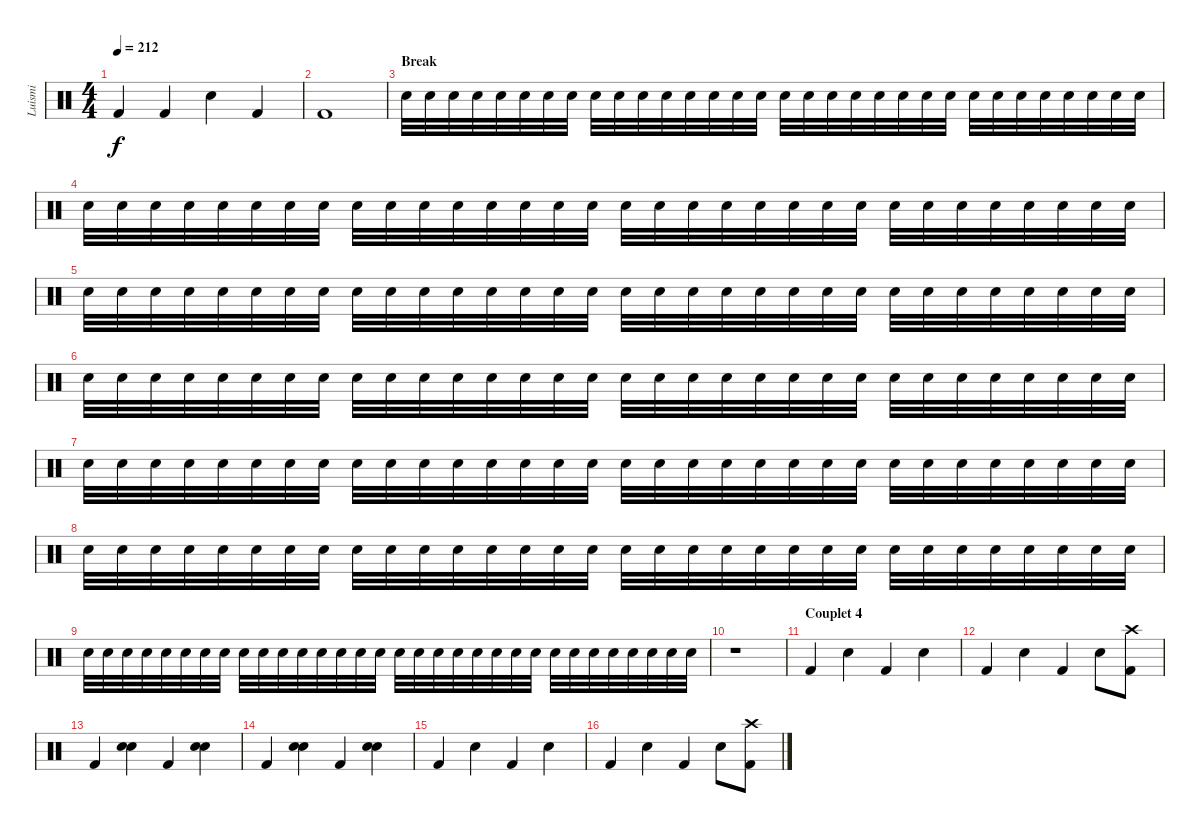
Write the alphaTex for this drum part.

\track ("Luismi" "Luismi") {instrument percussion}
\staff {score}
\articulation defaults
\ts (4 4)
\tempo 212
\clef neutral
\ks c "Kick (hit) 2".4{dy f} "Kick (hit) 2".4 "Snare (hit) 2".4 "Kick (hit) 2".4
|
"Kick (hit) 2".1 |
\section ("" "Break")
"Electric Snare (hit)".32{volume 1} "Snare (hit) 2".32 "Snare (hit) 2".32 "Snare (hit) 2".32 "Snare (hit) 2".32 "Snare (hit) 2".32 "Snare (hit) 2".32 "Snare (hit) 2".32 "Snare (hit) 2".32 "Snare (hit) 2".32 "Snare (hit) 2".32 "Snare (hit) 2".32 "Snare (hit) 2".32 "Snare (hit) 2".32 "Snare (hit) 2".32 "Snare (hit) 2".32 "Electric Snare (hit)".32{volume 2} "Snare (hit) 2".32 "Snare (hit) 2".32 "Snare (hit) 2".32 "Snare (hit) 2".32 "Snare (hit) 2".32 "Snare (hit) 2".32 "Snare (hit) 2".32 "Snare (hit) 2".32 "Snare (hit) 2".32 "Snare (hit) 2".32 "Snare (hit) 2".32 "Snare (hit) 2".32 "Snare (hit) 2".32 "Snare (hit) 2".32 "Snare (hit) 2".32 |
"Electric Snare (hit)".32 "Snare (hit) 2".32 "Snare (hit) 2".32 "Snare (hit) 2".32 "Snare (hit) 2".32 "Snare (hit) 2".32 "Snare (hit) 2".32 "Snare (hit) 2".32 "Snare (hit) 2".32 "Snare (hit) 2".32 "Snare (hit) 2".32 "Snare (hit) 2".32 "Snare (hit) 2".32 "Snare (hit) 2".32 "Snare (hit) 2".32 "Snare (hit) 2".32 "Electric Snare (hit)".32 "Snare (hit) 2".32 "Snare (hit) 2".32 "Snare (hit) 2".32 "Snare (hit) 2".32 "Snare (hit) 2".32 "Snare (hit) 2".32 "Snare (hit) 2".32 "Snare (hit) 2".32 "Snare (hit) 2".32 "Snare (hit) 2".32 "Snare (hit) 2".32 "Snare (hit) 2".32 "Snare (hit) 2".32 "Snare (hit) 2".32 "Snare (hit) 2".32 |
"Electric Snare (hit)".32 "Snare (hit) 2".32 "Snare (hit) 2".32 "Snare (hit) 2".32 "Snare (hit) 2".32 "Snare (hit) 2".32 "Snare (hit) 2".32 "Snare (hit) 2".32 "Snare (hit) 2".32 "Snare (hit) 2".32 "Snare (hit) 2".32 "Snare (hit) 2".32 "Snare (hit) 2".32 "Snare (hit) 2".32 "Snare (hit) 2".32 "Snare (hit) 2".32 "Electric Snare (hit)".32 "Snare (hit) 2".32 "Snare (hit) 2".32 "Snare (hit) 2".32 "Snare (hit) 2".32 "Snare (hit) 2".32 "Snare (hit) 2".32 "Snare (hit) 2".32 "Snare (hit) 2".32 "Snare (hit) 2".32 "Snare (hit) 2".32 "Snare (hit) 2".32 "Snare (hit) 2".32 "Snare (hit) 2".32 "Snare (hit) 2".32 "Snare (hit) 2".32 |
"Electric Snare (hit)".32 "Snare (hit) 2".32 "Snare (hit) 2".32 "Snare (hit) 2".32 "Snare (hit) 2".32 "Snare (hit) 2".32 "Snare (hit) 2".32 "Snare (hit) 2".32 "Snare (hit) 2".32 "Snare (hit) 2".32 "Snare (hit) 2".32 "Snare (hit) 2".32 "Snare (hit) 2".32 "Snare (hit) 2".32 "Snare (hit) 2".32 "Snare (hit) 2".32 "Electric Snare (hit)".32 "Snare (hit) 2".32 "Snare (hit) 2".32 "Snare (hit) 2".32 "Snare (hit) 2".32 "Snare (hit) 2".32 "Snare (hit) 2".32 "Snare (hit) 2".32 "Snare (hit) 2".32 "Snare (hit) 2".32 "Snare (hit) 2".32 "Snare (hit) 2".32 "Snare (hit) 2".32 "Snare (hit) 2".32 "Snare (hit) 2".32 "Snare (hit) 2".32 |
"Electric Snare (hit)".32{volume 3} "Snare (hit) 2".32 "Snare (hit) 2".32 "Snare (hit) 2".32 "Snare (hit) 2".32 "Snare (hit) 2".32 "Snare (hit) 2".32 "Snare (hit) 2".32 "Snare (hit) 2".32 "Snare (hit) 2".32 "Snare (hit) 2".32 "Snare (hit) 2".32 "Snare (hit) 2".32 "Snare (hit) 2".32 "Snare (hit) 2".32 "Snare (hit) 2".32 "Electric Snare (hit)".32 "Snare (hit) 2".32 "Snare (hit) 2".32 "Snare (hit) 2".32 "Snare (hit) 2".32 "Snare (hit) 2".32 "Snare (hit) 2".32 "Snare (hit) 2".32 "Snare (hit) 2".32 "Snare (hit) 2".32 "Snare (hit) 2".32 "Snare (hit) 2".32 "Snare (hit) 2".32 "Snare (hit) 2".32 "Snare (hit) 2".32 "Snare (hit) 2".32 |
"Electric Snare (hit)".32{volume 4} "Snare (hit) 2".32 "Snare (hit) 2".32 "Snare (hit) 2".32 "Snare (hit) 2".32 "Snare (hit) 2".32 "Snare (hit) 2".32 "Snare (hit) 2".32 "Snare (hit) 2".32 "Snare (hit) 2".32 "Snare (hit) 2".32 "Snare (hit) 2".32 "Snare (hit) 2".32 "Snare (hit) 2".32 "Snare (hit) 2".32 "Snare (hit) 2".32 "Electric Snare (hit)".32 "Snare (hit) 2".32 "Snare (hit) 2".32 "Snare (hit) 2".32 "Snare (hit) 2".32 "Snare (hit) 2".32 "Snare (hit) 2".32 "Snare (hit) 2".32 "Snare (hit) 2".32 "Snare (hit) 2".32 "Snare (hit) 2".32 "Snare (hit) 2".32 "Snare (hit) 2".32 "Snare (hit) 2".32 "Snare (hit) 2".32 "Snare (hit) 2".32 |
"Electric Snare (hit)".32{volume 5} "Snare (hit) 2".32 "Snare (hit) 2".32 "Snare (hit) 2".32 "Snare (hit) 2".32 "Snare (hit) 2".32 "Snare (hit) 2".32 "Snare (hit) 2".32 "Snare (hit) 2".32 "Snare (hit) 2".32 "Snare (hit) 2".32 "Snare (hit) 2".32 "Snare (hit) 2".32 "Snare (hit) 2".32 "Snare (hit) 2".32 "Snare (hit) 2".32 "Electric Snare (hit)".32 "Snare (hit) 2".32 "Snare (hit) 2".32 "Snare (hit) 2".32 "Snare (hit) 2".32 "Snare (hit) 2".32 "Snare (hit) 2".32 "Snare (hit) 2".32 "Snare (hit) 2".32 "Snare (hit) 2".32 "Snare (hit) 2".32 "Snare (hit) 2".32 "Snare (hit) 2".32 "Snare (hit) 2".32 "Snare (hit) 2".32 "Electric Snare (hit)".32{volume 16} |
r.1 |
\section ("" "Couplet 4")
"Kick (hit) 2".4 "Electric Snare (hit)".4 "Kick (hit) 2".4 "Electric Snare (hit)".4 |
"Kick (hit) 2".4 "Electric Snare (hit)".4 "Kick (hit) 2".4 "Electric Snare (hit)".8 ("Crash high (hit)" "Kick (hit) 2").8 |
"Kick (hit) 2".4 ("Electric Snare (hit)" "Snare (hit) 2").4 "Kick (hit) 2".4 ("Electric Snare (hit)" "Snare (hit) 2").4 |
"Kick (hit) 2".4 ("Electric Snare (hit)" "Snare (hit) 2").4 "Kick (hit) 2".4 ("Electric Snare (hit)" "Snare (hit) 2").4 |
"Kick (hit) 2".4 "Electric Snare (hit)".4 "Kick (hit) 2".4 "Electric Snare (hit)".4 |
"Kick (hit) 2".4 "Electric Snare (hit)".4 "Kick (hit) 2".4 "Electric Snare (hit)".8 ("Crash high (hit)" "Kick (hit) 2").8
